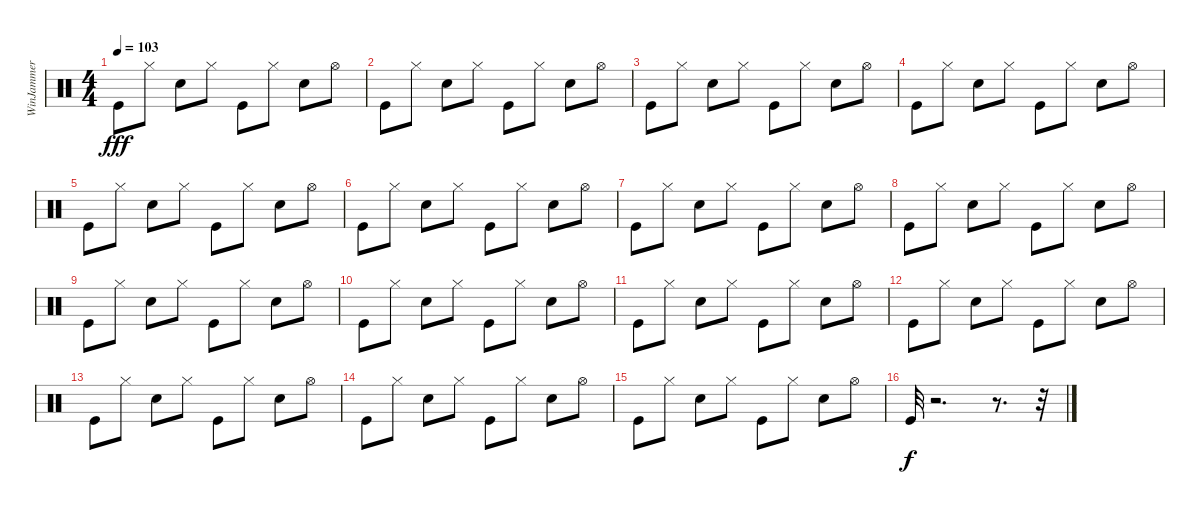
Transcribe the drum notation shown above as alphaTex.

\track ("WinJammer Demo" "WinJammer ") {instrument percussion}
\staff {score}
\articulation defaults
\ts (4 4)
\tempo 103
\clef neutral
\ks c "Kick (hit)".8{dy fff} "Hi-Hat (closed)".8 "Snare (hit) 2".8 "Hi-Hat (closed)".8 "Kick (hit)".8 "Hi-Hat (closed)".8 "Snare (hit) 2".8 "Hi-Hat (open)".8
|
"Kick (hit)".8 "Hi-Hat (closed)".8 "Snare (hit) 2".8 "Hi-Hat (closed)".8 "Kick (hit)".8 "Hi-Hat (closed)".8 "Snare (hit) 2".8 "Hi-Hat (open)".8 |
"Kick (hit)".8 "Hi-Hat (closed)".8 "Snare (hit) 2".8 "Hi-Hat (closed)".8 "Kick (hit)".8 "Hi-Hat (closed)".8 "Snare (hit) 2".8 "Hi-Hat (open)".8 |
"Kick (hit)".8 "Hi-Hat (closed)".8 "Snare (hit) 2".8 "Hi-Hat (closed)".8 "Kick (hit)".8 "Hi-Hat (closed)".8 "Snare (hit) 2".8 "Hi-Hat (open)".8 |
"Kick (hit)".8 "Hi-Hat (closed)".8 "Snare (hit) 2".8 "Hi-Hat (closed)".8 "Kick (hit)".8 "Hi-Hat (closed)".8 "Snare (hit) 2".8 "Hi-Hat (open)".8 |
"Kick (hit)".8 "Hi-Hat (closed)".8 "Snare (hit) 2".8 "Hi-Hat (closed)".8 "Kick (hit)".8 "Hi-Hat (closed)".8 "Snare (hit) 2".8 "Hi-Hat (open)".8 |
"Kick (hit)".8 "Hi-Hat (closed)".8 "Snare (hit) 2".8 "Hi-Hat (closed)".8 "Kick (hit)".8 "Hi-Hat (closed)".8 "Snare (hit) 2".8 "Hi-Hat (open)".8 |
"Kick (hit)".8 "Hi-Hat (closed)".8 "Snare (hit) 2".8 "Hi-Hat (closed)".8 "Kick (hit)".8 "Hi-Hat (closed)".8 "Snare (hit) 2".8 "Hi-Hat (open)".8 |
"Kick (hit)".8 "Hi-Hat (closed)".8 "Snare (hit) 2".8 "Hi-Hat (closed)".8 "Kick (hit)".8 "Hi-Hat (closed)".8 "Snare (hit) 2".8 "Hi-Hat (open)".8 |
"Kick (hit)".8 "Hi-Hat (closed)".8 "Snare (hit) 2".8 "Hi-Hat (closed)".8 "Kick (hit)".8 "Hi-Hat (closed)".8 "Snare (hit) 2".8 "Hi-Hat (open)".8 |
"Kick (hit)".8 "Hi-Hat (closed)".8 "Snare (hit) 2".8 "Hi-Hat (closed)".8 "Kick (hit)".8 "Hi-Hat (closed)".8 "Snare (hit) 2".8 "Hi-Hat (open)".8 |
"Kick (hit)".8 "Hi-Hat (closed)".8 "Snare (hit) 2".8 "Hi-Hat (closed)".8 "Kick (hit)".8 "Hi-Hat (closed)".8 "Snare (hit) 2".8 "Hi-Hat (open)".8 |
"Kick (hit)".8 "Hi-Hat (closed)".8 "Snare (hit) 2".8 "Hi-Hat (closed)".8 "Kick (hit)".8 "Hi-Hat (closed)".8 "Snare (hit) 2".8 "Hi-Hat (open)".8 |
"Kick (hit)".8 "Hi-Hat (closed)".8 "Snare (hit) 2".8 "Hi-Hat (closed)".8 "Kick (hit)".8 "Hi-Hat (closed)".8 "Snare (hit) 2".8 "Hi-Hat (open)".8 |
"Kick (hit)".8 "Hi-Hat (closed)".8 "Snare (hit) 2".8 "Hi-Hat (closed)".8 "Kick (hit)".8 "Hi-Hat (closed)".8 "Snare (hit) 2".8 "Hi-Hat (open)".8 |
"Kick (hit)".32{dy f} r.2{d} r.8{d} r.32
